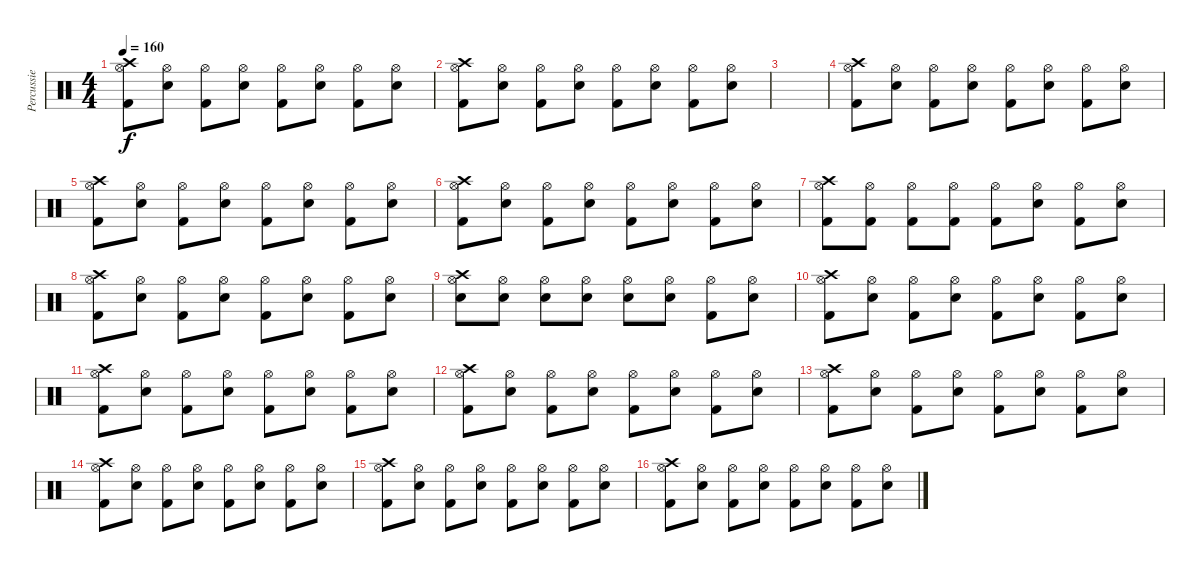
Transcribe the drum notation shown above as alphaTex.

\track ("Percussie" "Percussie") {instrument percussion}
\staff {score}
\articulation defaults
\ts (4 4)
\tempo 160
\clef neutral
\ks c
("Kick (hit) 2" "Crash high (hit)" "Hi-Hat (open)").8{dy f} ("Snare (hit) 2" "Hi-Hat (open)").8 ("Kick (hit) 2" "Hi-Hat (open)").8 ("Snare (hit) 2" "Hi-Hat (open)").8 ("Kick (hit) 2" "Hi-Hat (open)").8 ("Snare (hit) 2" "Hi-Hat (open)").8 ("Kick (hit) 2" "Hi-Hat (open)").8 ("Snare (hit) 2" "Hi-Hat (open)").8 |
("Kick (hit) 2" "Crash high (hit)" "Hi-Hat (open)").8 ("Snare (hit) 2" "Hi-Hat (open)").8 ("Kick (hit) 2" "Hi-Hat (open)").8 ("Snare (hit) 2" "Hi-Hat (open)").8 ("Kick (hit) 2" "Hi-Hat (open)").8 ("Snare (hit) 2" "Hi-Hat (open)").8 ("Kick (hit) 2" "Hi-Hat (open)").8 ("Snare (hit) 2" "Hi-Hat (open)").8 |
|
("Kick (hit) 2" "Crash high (hit)" "Hi-Hat (open)").8 ("Snare (hit) 2" "Hi-Hat (open)").8 ("Kick (hit) 2" "Hi-Hat (open)").8 ("Snare (hit) 2" "Hi-Hat (open)").8 ("Kick (hit) 2" "Hi-Hat (open)").8 ("Snare (hit) 2" "Hi-Hat (open)").8 ("Kick (hit) 2" "Hi-Hat (open)").8 ("Snare (hit) 2" "Hi-Hat (open)").8 |
("Kick (hit) 2" "Crash high (hit)" "Hi-Hat (open)").8 ("Snare (hit) 2" "Hi-Hat (open)").8 ("Kick (hit) 2" "Hi-Hat (open)").8 ("Snare (hit) 2" "Hi-Hat (open)").8 ("Kick (hit) 2" "Hi-Hat (open)").8 ("Snare (hit) 2" "Hi-Hat (open)").8 ("Kick (hit) 2" "Hi-Hat (open)").8 ("Snare (hit) 2" "Hi-Hat (open)").8 |
("Kick (hit) 2" "Crash high (hit)" "Hi-Hat (open)").8 ("Snare (hit) 2" "Hi-Hat (open)").8 ("Kick (hit) 2" "Hi-Hat (open)").8 ("Snare (hit) 2" "Hi-Hat (open)").8 ("Kick (hit) 2" "Hi-Hat (open)").8 ("Snare (hit) 2" "Hi-Hat (open)").8 ("Kick (hit) 2" "Hi-Hat (open)").8 ("Snare (hit) 2" "Hi-Hat (open)").8 |
("Kick (hit) 2" "Crash high (hit)" "Hi-Hat (open)").8 ("Kick (hit) 2" "Hi-Hat (open)").8 ("Kick (hit) 2" "Hi-Hat (open)").8 ("Kick (hit) 2" "Hi-Hat (open)").8 ("Kick (hit) 2" "Hi-Hat (open)").8 ("Snare (hit) 2" "Hi-Hat (open)").8 ("Kick (hit) 2" "Hi-Hat (open)").8 ("Snare (hit) 2" "Hi-Hat (open)").8 |
("Kick (hit) 2" "Crash high (hit)" "Hi-Hat (open)").8 ("Snare (hit) 2" "Hi-Hat (open)").8 ("Kick (hit) 2" "Hi-Hat (open)").8 ("Snare (hit) 2" "Hi-Hat (open)").8 ("Kick (hit) 2" "Hi-Hat (open)").8 ("Snare (hit) 2" "Hi-Hat (open)").8 ("Kick (hit) 2" "Hi-Hat (open)").8 ("Snare (hit) 2" "Hi-Hat (open)").8 |
("Snare (hit) 2" "Crash high (hit)" "Hi-Hat (open)").8 ("Snare (hit) 2" "Hi-Hat (open)").8 ("Snare (hit) 2" "Hi-Hat (open)").8 ("Snare (hit) 2" "Hi-Hat (open)").8 ("Snare (hit) 2" "Hi-Hat (open)").8 ("Snare (hit) 2" "Hi-Hat (open)").8 ("Kick (hit) 2" "Hi-Hat (open)").8 ("Snare (hit) 2" "Hi-Hat (open)").8 |
("Kick (hit) 2" "Crash high (hit)" "Hi-Hat (open)").8 ("Snare (hit) 2" "Hi-Hat (open)").8 ("Kick (hit) 2" "Hi-Hat (open)").8 ("Snare (hit) 2" "Hi-Hat (open)").8 ("Kick (hit) 2" "Hi-Hat (open)").8 ("Snare (hit) 2" "Hi-Hat (open)").8 ("Kick (hit) 2" "Hi-Hat (open)").8 ("Snare (hit) 2" "Hi-Hat (open)").8 |
("Kick (hit) 2" "Crash high (hit)" "Hi-Hat (open)").8 ("Snare (hit) 2" "Hi-Hat (open)").8 ("Kick (hit) 2" "Hi-Hat (open)").8 ("Snare (hit) 2" "Hi-Hat (open)").8 ("Kick (hit) 2" "Hi-Hat (open)").8 ("Snare (hit) 2" "Hi-Hat (open)").8 ("Kick (hit) 2" "Hi-Hat (open)").8 ("Snare (hit) 2" "Hi-Hat (open)").8 |
("Kick (hit) 2" "Crash high (hit)" "Hi-Hat (open)").8 ("Snare (hit) 2" "Hi-Hat (open)").8 ("Kick (hit) 2" "Hi-Hat (open)").8 ("Snare (hit) 2" "Hi-Hat (open)").8 ("Kick (hit) 2" "Hi-Hat (open)").8 ("Snare (hit) 2" "Hi-Hat (open)").8 ("Kick (hit) 2" "Hi-Hat (open)").8 ("Snare (hit) 2" "Hi-Hat (open)").8 |
("Kick (hit) 2" "Crash high (hit)" "Hi-Hat (open)").8 ("Snare (hit) 2" "Hi-Hat (open)").8 ("Kick (hit) 2" "Hi-Hat (open)").8 ("Snare (hit) 2" "Hi-Hat (open)").8 ("Kick (hit) 2" "Hi-Hat (open)").8 ("Snare (hit) 2" "Hi-Hat (open)").8 ("Kick (hit) 2" "Hi-Hat (open)").8 ("Snare (hit) 2" "Hi-Hat (open)").8 |
("Kick (hit) 2" "Crash high (hit)" "Hi-Hat (open)").8 ("Snare (hit) 2" "Hi-Hat (open)").8 ("Kick (hit) 2" "Hi-Hat (open)").8 ("Snare (hit) 2" "Hi-Hat (open)").8 ("Kick (hit) 2" "Hi-Hat (open)").8 ("Snare (hit) 2" "Hi-Hat (open)").8 ("Kick (hit) 2" "Hi-Hat (open)").8 ("Snare (hit) 2" "Hi-Hat (open)").8 |
("Kick (hit) 2" "Crash high (hit)" "Hi-Hat (open)").8 ("Snare (hit) 2" "Hi-Hat (open)").8 ("Kick (hit) 2" "Hi-Hat (open)").8 ("Snare (hit) 2" "Hi-Hat (open)").8 ("Kick (hit) 2" "Hi-Hat (open)").8 ("Snare (hit) 2" "Hi-Hat (open)").8 ("Kick (hit) 2" "Hi-Hat (open)").8 ("Snare (hit) 2" "Hi-Hat (open)").8 |
("Kick (hit) 2" "Crash high (hit)" "Hi-Hat (open)").8 ("Snare (hit) 2" "Hi-Hat (open)").8 ("Kick (hit) 2" "Hi-Hat (open)").8 ("Snare (hit) 2" "Hi-Hat (open)").8 ("Kick (hit) 2" "Hi-Hat (open)").8 ("Snare (hit) 2" "Hi-Hat (open)").8 ("Kick (hit) 2" "Hi-Hat (open)").8 ("Snare (hit) 2" "Hi-Hat (open)").8
